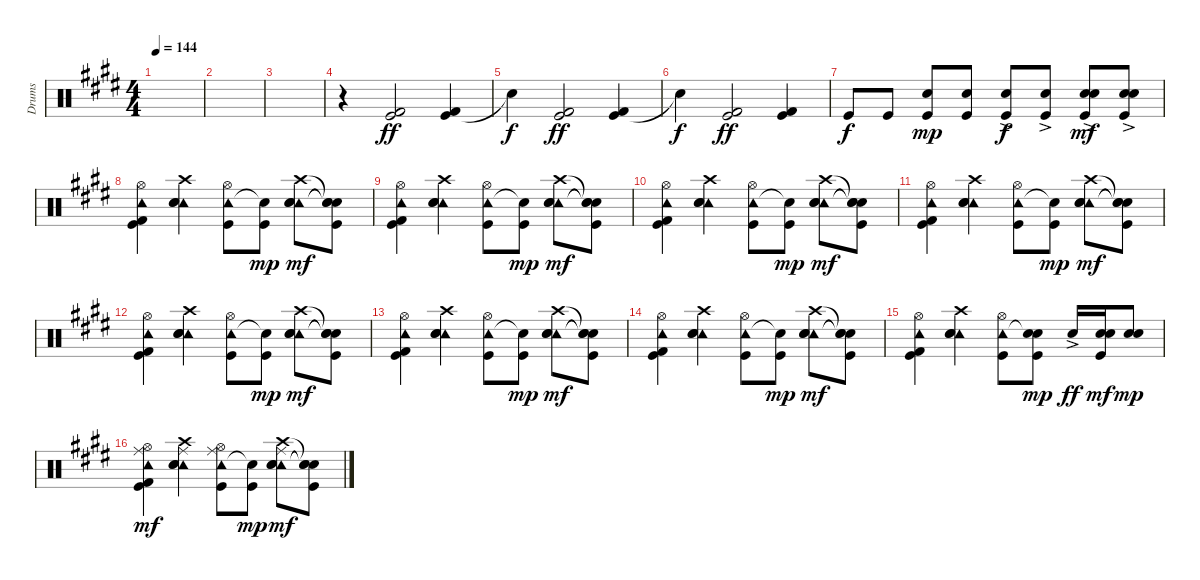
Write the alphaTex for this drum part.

\track ("Drums" "Drums") {instrument percussion}
\staff {score}
\articulation defaults
\ts (4 4)
\tempo 144
\clef neutral
\ks c#minor
|
|
|
\ks e
r.4 ("Kick (hit)" "Kick (hit) 2").2{dy ff} ("Kick (hit)" "Kick (hit) 2").4 |
\ks c#minor "Snare (hit)"{t}.4{dy f}
("Kick (hit)" "Kick (hit) 2").2{dy ff} ("Kick (hit)" "Kick (hit) 2").4 |
"Snare (hit)"{t}.4{dy f} ("Kick (hit)" "Kick (hit) 2").2{dy ff} ("Kick (hit)" "Kick (hit) 2").4 |
"Kick (hit)".8{dy f} "Kick (hit)".8 ("Snare (hit) 2" "Kick (hit)").8{dy mp} ("Snare (hit) 2" "Kick (hit)").8 ("Snare (hit) 2"{ac} "Kick (hit)").8{dy f} ("Snare (hit) 2"{ac} "Kick (hit)").8 ("Snare (hit) 2"{ac} "Electric Snare (hit)"{ac} "Kick (hit)").8{dy mf} ("Snare (hit) 2"{ac} "Electric Snare (hit)"{ac} "Kick (hit)").8 |
\ks e
("Tambourine (hit)" "Hi-Hat (open)" "Kick (hit) 2" "Kick (hit)").4 ("Crash high (hit)" "Tambourine (hit)" "Snare (hit) 2" "Electric Snare (hit)").4 ("Tambourine (hit)" "Hi-Hat (open)" "Kick (hit)").8 ("Snare (hit)"{t} "Kick (hit)").8{dy mp} ("Crash high (hit)" "Tambourine (hit)" "Snare (hit) 2" "Electric Snare (hit)").8{dy mf} ("Snare (hit)"{t} "Snare (hit)"{t} "Snare (hit)"{t} "Kick (hit)").8 |
\ks c#minor
("Tambourine (hit)" "Hi-Hat (open)" "Kick (hit) 2" "Kick (hit)").4 ("Crash high (hit)" "Tambourine (hit)" "Snare (hit) 2" "Electric Snare (hit)").4 ("Tambourine (hit)" "Hi-Hat (open)" "Kick (hit)").8 ("Snare (hit)"{t} "Kick (hit)").8{dy mp} ("Crash high (hit)" "Tambourine (hit)" "Snare (hit) 2" "Electric Snare (hit)").8{dy mf} ("Snare (hit)"{t} "Snare (hit)"{t} "Snare (hit)"{t} "Kick (hit)").8 |
("Tambourine (hit)" "Hi-Hat (open)" "Kick (hit) 2" "Kick (hit)").4 ("Crash high (hit)" "Tambourine (hit)" "Snare (hit) 2" "Electric Snare (hit)").4 ("Tambourine (hit)" "Hi-Hat (open)" "Kick (hit)").8 ("Snare (hit)"{t} "Kick (hit)").8{dy mp} ("Crash high (hit)" "Tambourine (hit)" "Snare (hit) 2" "Electric Snare (hit)").8{dy mf} ("Snare (hit)"{t} "Snare (hit)"{t} "Snare (hit)"{t} "Kick (hit)").8 |
("Tambourine (hit)" "Hi-Hat (open)" "Kick (hit) 2" "Kick (hit)").4 ("Crash high (hit)" "Tambourine (hit)" "Snare (hit) 2" "Electric Snare (hit)").4 ("Tambourine (hit)" "Hi-Hat (open)" "Kick (hit)").8 ("Snare (hit)"{t} "Kick (hit)").8{dy mp} ("Crash high (hit)" "Tambourine (hit)" "Snare (hit) 2" "Electric Snare (hit)").8{dy mf} ("Snare (hit)"{t} "Snare (hit)"{t} "Snare (hit)"{t} "Kick (hit)").8 |
\ks e
("Tambourine (hit)" "Hi-Hat (open)" "Kick (hit) 2" "Kick (hit)").4 ("Crash high (hit)" "Tambourine (hit)" "Snare (hit) 2" "Electric Snare (hit)").4 ("Tambourine (hit)" "Hi-Hat (open)" "Kick (hit)").8 ("Snare (hit)"{t} "Kick (hit)").8{dy mp} ("Crash high (hit)" "Tambourine (hit)" "Snare (hit) 2" "Electric Snare (hit)").8{dy mf} ("Snare (hit)"{t} "Snare (hit)"{t} "Snare (hit)"{t} "Kick (hit)").8 |
\ks c#minor
("Tambourine (hit)" "Hi-Hat (open)" "Kick (hit) 2" "Kick (hit)").4 ("Crash high (hit)" "Tambourine (hit)" "Snare (hit) 2" "Electric Snare (hit)").4 ("Tambourine (hit)" "Hi-Hat (open)" "Kick (hit)").8 ("Snare (hit)"{t} "Kick (hit)").8{dy mp} ("Crash high (hit)" "Tambourine (hit)" "Snare (hit) 2" "Electric Snare (hit)").8{dy mf} ("Snare (hit)"{t} "Snare (hit)"{t} "Snare (hit)"{t} "Kick (hit)").8 |
("Tambourine (hit)" "Hi-Hat (open)" "Kick (hit) 2" "Kick (hit)").4 ("Crash high (hit)" "Tambourine (hit)" "Snare (hit) 2" "Electric Snare (hit)").4 ("Tambourine (hit)" "Hi-Hat (open)" "Kick (hit)").8 ("Snare (hit)"{t} "Kick (hit)").8{dy mp} ("Crash high (hit)" "Tambourine (hit)" "Snare (hit) 2" "Electric Snare (hit)").8{dy mf} ("Snare (hit)"{t} "Snare (hit)"{t} "Snare (hit)"{t} "Kick (hit)").8 |
("Tambourine (hit)" "Hi-Hat (open)" "Kick (hit) 2" "Kick (hit)").4 ("Crash high (hit)" "Tambourine (hit)" "Snare (hit) 2" "Electric Snare (hit)").4 ("Tambourine (hit)" "Hi-Hat (open)" "Kick (hit)").8 ("Snare (hit)"{t} "Snare (hit) 2" "Kick (hit)").8{dy mp} "Snare (hit) 2"{ac}.16{dy ff} ("Snare (hit) 2" "Electric Snare (hit)" "Kick (hit)").16{dy mf} ("Snare (hit) 2" "Electric Snare (hit)").8{dy mp} |
\ks e
("Tambourine (hit)" "Hi-Hat (open)" "Ride (middle)" "Kick (hit) 2" "Kick (hit)").4{dy mf} ("Crash high (hit)" "Tambourine (hit)" "Snare (hit) 2" "Electric Snare (hit)" "Ride (middle)").4 ("Tambourine (hit)" "Hi-Hat (open)" "Ride (middle)" "Kick (hit)").8 ("Snare (hit)"{t} "Kick (hit)").8{dy mp} ("Crash high (hit)" "Tambourine (hit)" "Snare (hit) 2" "Electric Snare (hit)" "Ride (middle)").8{dy mf} ("Snare (hit)"{t} "Snare (hit)"{t} "Snare (hit)"{t} "Kick (hit)").8
